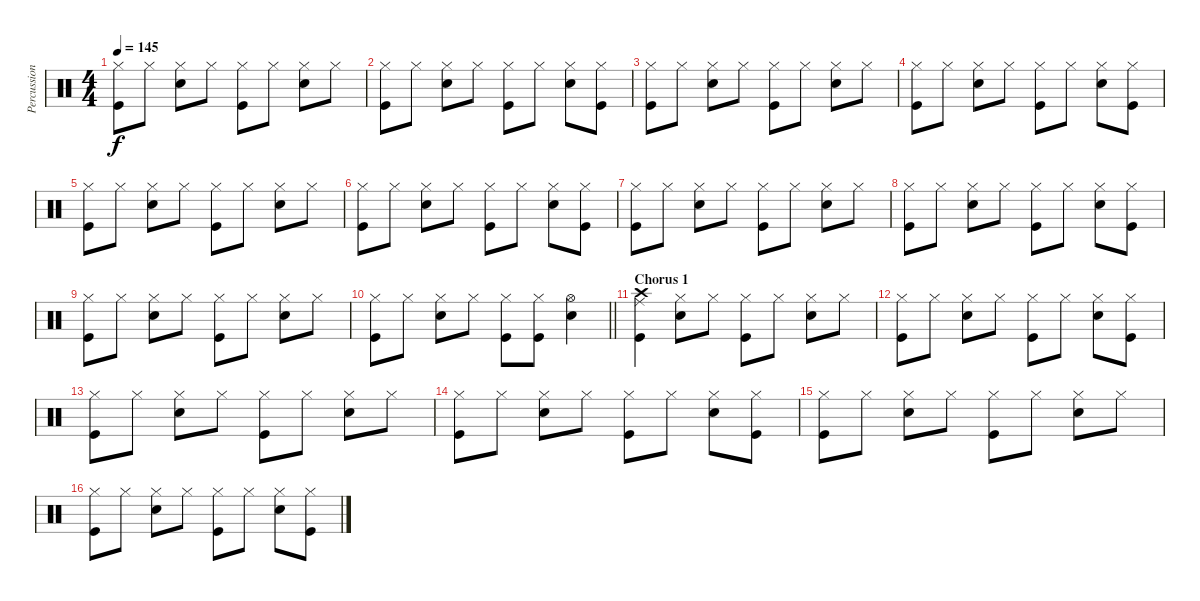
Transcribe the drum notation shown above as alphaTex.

\track ("Percussion" "Percussion") {instrument percussion}
\staff {score}
\articulation defaults
\ts (4 4)
\tempo 145
\clef neutral
\ks c
("Kick (hit)" "Hi-Hat (closed)").8{dy f} "Hi-Hat (closed)".8 ("Hi-Hat (closed)" "Snare (hit) 2").8 "Hi-Hat (closed)".8 ("Kick (hit)" "Hi-Hat (closed)").8 "Hi-Hat (closed)".8 ("Hi-Hat (closed)" "Snare (hit) 2").8 "Hi-Hat (closed)".8 |
("Kick (hit)" "Hi-Hat (closed)").8 "Hi-Hat (closed)".8 ("Hi-Hat (closed)" "Snare (hit) 2").8 "Hi-Hat (closed)".8 ("Kick (hit)" "Hi-Hat (closed)").8 "Hi-Hat (closed)".8 ("Hi-Hat (closed)" "Snare (hit) 2").8 ("Kick (hit)" "Hi-Hat (closed)").8 |
("Kick (hit)" "Hi-Hat (closed)").8 "Hi-Hat (closed)".8 ("Hi-Hat (closed)" "Snare (hit) 2").8 "Hi-Hat (closed)".8 ("Kick (hit)" "Hi-Hat (closed)").8 "Hi-Hat (closed)".8 ("Hi-Hat (closed)" "Snare (hit) 2").8 "Hi-Hat (closed)".8 |
("Kick (hit)" "Hi-Hat (closed)").8 "Hi-Hat (closed)".8 ("Hi-Hat (closed)" "Snare (hit) 2").8 "Hi-Hat (closed)".8 ("Kick (hit)" "Hi-Hat (closed)").8 "Hi-Hat (closed)".8 ("Hi-Hat (closed)" "Snare (hit) 2").8 ("Kick (hit)" "Hi-Hat (closed)").8 |
("Kick (hit)" "Hi-Hat (closed)").8 "Hi-Hat (closed)".8 ("Hi-Hat (closed)" "Snare (hit) 2").8 "Hi-Hat (closed)".8 ("Kick (hit)" "Hi-Hat (closed)").8 "Hi-Hat (closed)".8 ("Hi-Hat (closed)" "Snare (hit) 2").8 "Hi-Hat (closed)".8 |
("Kick (hit)" "Hi-Hat (closed)").8 "Hi-Hat (closed)".8 ("Hi-Hat (closed)" "Snare (hit) 2").8 "Hi-Hat (closed)".8 ("Kick (hit)" "Hi-Hat (closed)").8 "Hi-Hat (closed)".8 ("Hi-Hat (closed)" "Snare (hit) 2").8 ("Kick (hit)" "Hi-Hat (closed)").8 |
("Kick (hit)" "Hi-Hat (closed)").8 "Hi-Hat (closed)".8 ("Hi-Hat (closed)" "Snare (hit) 2").8 "Hi-Hat (closed)".8 ("Kick (hit)" "Hi-Hat (closed)").8 "Hi-Hat (closed)".8 ("Hi-Hat (closed)" "Snare (hit) 2").8 "Hi-Hat (closed)".8 |
("Kick (hit)" "Hi-Hat (closed)").8 "Hi-Hat (closed)".8 ("Hi-Hat (closed)" "Snare (hit) 2").8 "Hi-Hat (closed)".8 ("Kick (hit)" "Hi-Hat (closed)").8 "Hi-Hat (closed)".8 ("Hi-Hat (closed)" "Snare (hit) 2").8 ("Kick (hit)" "Hi-Hat (closed)").8 |
("Kick (hit)" "Hi-Hat (closed)").8 "Hi-Hat (closed)".8 ("Hi-Hat (closed)" "Snare (hit) 2").8 "Hi-Hat (closed)".8 ("Kick (hit)" "Hi-Hat (closed)").8 "Hi-Hat (closed)".8 ("Hi-Hat (closed)" "Snare (hit) 2").8 "Hi-Hat (closed)".8 |
\barLineRight lightlight
("Kick (hit)" "Hi-Hat (closed)").8 "Hi-Hat (closed)".8 ("Hi-Hat (closed)" "Snare (hit) 2").8 "Hi-Hat (closed)".8 ("Kick (hit)" "Hi-Hat (closed)").8 ("Kick (hit)" "Hi-Hat (closed)").8 ("Hi-Hat (open)" "Snare (hit) 2").4 |
\section ("" "Chorus 1")
("Ride (middle)" "Kick (hit)" "Crash high (hit)").4 ("Hi-Hat (closed)" "Snare (hit) 2").8 "Hi-Hat (closed)".8 ("Kick (hit)" "Hi-Hat (closed)").8 "Hi-Hat (closed)".8 ("Hi-Hat (closed)" "Snare (hit) 2").8 "Hi-Hat (closed)".8 |
("Kick (hit)" "Hi-Hat (closed)").8 "Hi-Hat (closed)".8 ("Hi-Hat (closed)" "Snare (hit) 2").8 "Hi-Hat (closed)".8 ("Kick (hit)" "Hi-Hat (closed)").8 "Hi-Hat (closed)".8 ("Hi-Hat (closed)" "Snare (hit) 2").8 ("Kick (hit)" "Hi-Hat (closed)").8 |
("Kick (hit)" "Hi-Hat (closed)").8 "Hi-Hat (closed)".8 ("Hi-Hat (closed)" "Snare (hit) 2").8 "Hi-Hat (closed)".8 ("Kick (hit)" "Hi-Hat (closed)").8 "Hi-Hat (closed)".8 ("Hi-Hat (closed)" "Snare (hit) 2").8 "Hi-Hat (closed)".8 |
("Kick (hit)" "Hi-Hat (closed)").8 "Hi-Hat (closed)".8 ("Hi-Hat (closed)" "Snare (hit) 2").8 "Hi-Hat (closed)".8 ("Kick (hit)" "Hi-Hat (closed)").8 "Hi-Hat (closed)".8 ("Hi-Hat (closed)" "Snare (hit) 2").8 ("Kick (hit)" "Hi-Hat (closed)").8 |
("Kick (hit)" "Hi-Hat (closed)").8 "Hi-Hat (closed)".8 ("Hi-Hat (closed)" "Snare (hit) 2").8 "Hi-Hat (closed)".8 ("Kick (hit)" "Hi-Hat (closed)").8 "Hi-Hat (closed)".8 ("Hi-Hat (closed)" "Snare (hit) 2").8 "Hi-Hat (closed)".8 |
("Kick (hit)" "Hi-Hat (closed)").8 "Hi-Hat (closed)".8 ("Hi-Hat (closed)" "Snare (hit) 2").8 "Hi-Hat (closed)".8 ("Kick (hit)" "Hi-Hat (closed)").8 "Hi-Hat (closed)".8 ("Hi-Hat (closed)" "Snare (hit) 2").8 ("Kick (hit)" "Hi-Hat (closed)").8
